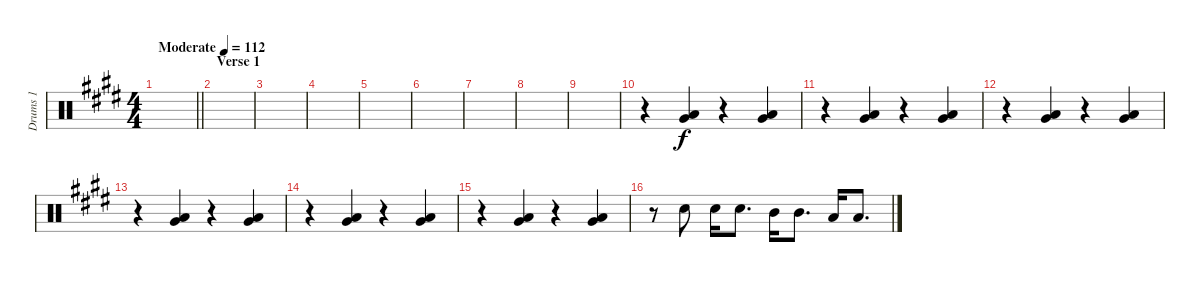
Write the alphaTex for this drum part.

\track ("Drums 1" "Drums 1") {instrument percussion}
\staff {score}
\articulation defaults
\ts (4 4)
\tempo (112 "Moderate")
\clef neutral
\barLineRight lightlight
\ks e
|
\section ("" "Verse 1")
|
|
|
|
|
|
|
|
r.4 ("Low Tom (hit)" "Very Low Tom (hit)").4 r.4 ("Low Tom (hit)" "Very Low Tom (hit)").4 |
r.4 ("Low Tom (hit)" "Very Low Tom (hit)").4 r.4 ("Low Tom (hit)" "Very Low Tom (hit)").4 |
r.4 ("Low Tom (hit)" "Very Low Tom (hit)").4 r.4 ("Low Tom (hit)" "Very Low Tom (hit)").4 |
r.4 ("Low Tom (hit)" "Very Low Tom (hit)").4 r.4 ("Low Tom (hit)" "Very Low Tom (hit)").4 |
r.4 ("Low Tom (hit)" "Very Low Tom (hit)").4 r.4 ("Low Tom (hit)" "Very Low Tom (hit)").4 |
r.4 ("Low Tom (hit)" "Very Low Tom (hit)").4 r.4 ("Low Tom (hit)" "Very Low Tom (hit)").4 |
r.8 "Snare (hit) 2".8 "Snare (hit) 2".16 "Snare (hit) 2".8{d} "Mid Tom (hit)".16 "Mid Tom (hit)".8{d} "Low Tom (hit)".16 "Low Tom (hit)".8{d}
